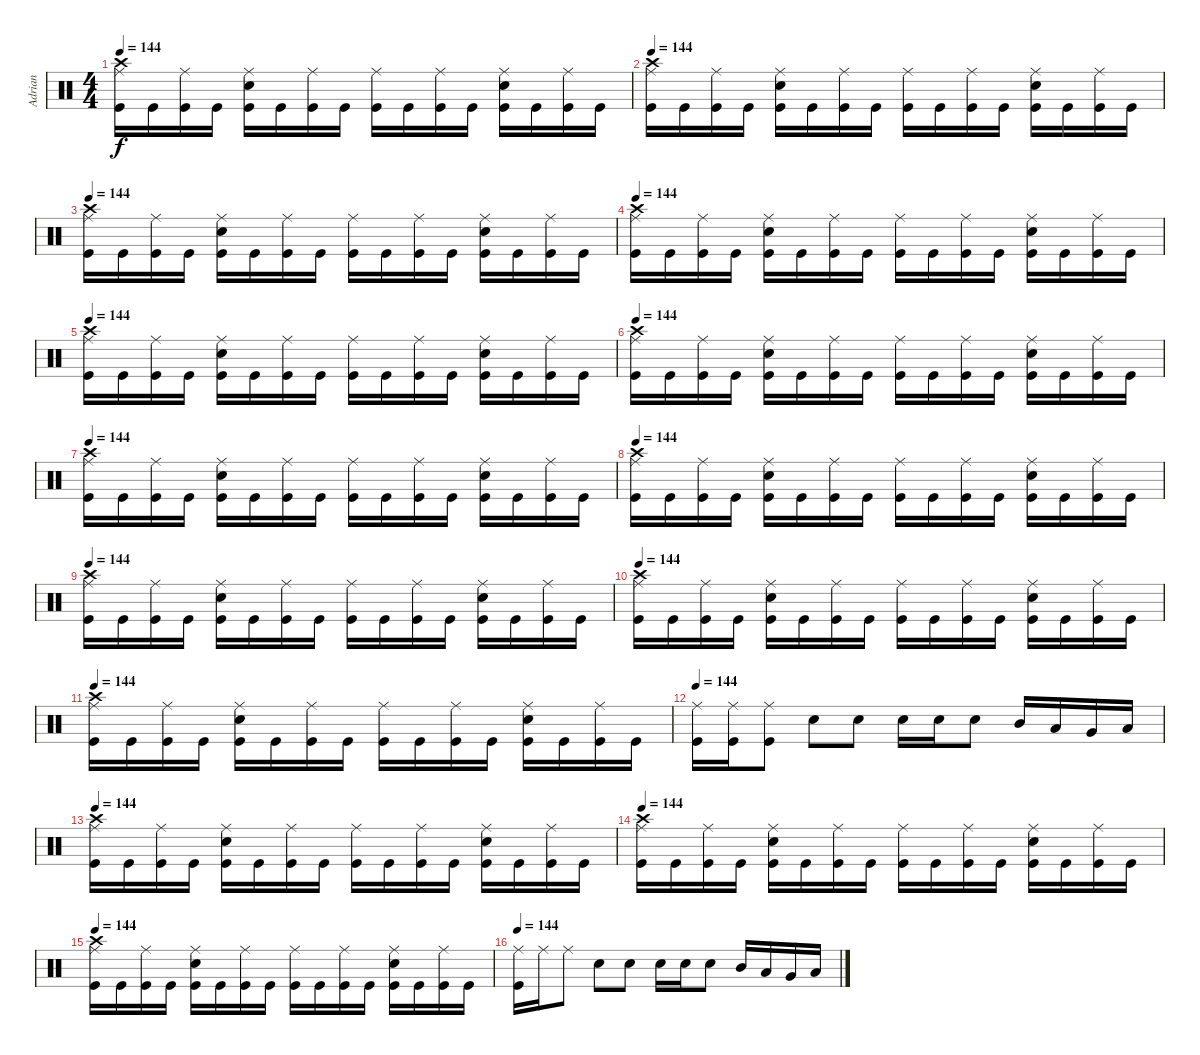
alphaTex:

\track ("Adrian" "Adrian") {instrument percussion}
\staff {score}
\articulation defaults
\ts (4 4)
\tempo 144
\clef neutral
\ks c
("Kick (hit)" "Ride (middle)" "Crash high (hit)").16{dy f} "Kick (hit)".16 ("Kick (hit)" "Ride (middle)").16 "Kick (hit)".16 ("Kick (hit)" "Snare (hit) 2" "Ride (middle)").16 "Kick (hit)".16 ("Kick (hit)" "Ride (middle)").16 "Kick (hit)".16 ("Kick (hit)" "Ride (middle)").16 "Kick (hit)".16 ("Kick (hit)" "Ride (middle)").16 "Kick (hit)".16 ("Kick (hit)" "Snare (hit) 2" "Ride (middle)").16 "Kick (hit)".16 ("Kick (hit)" "Ride (middle)").16 "Kick (hit)".16 |
\tempo 144
("Kick (hit)" "Ride (middle)" "Crash high (hit)").16 "Kick (hit)".16 ("Kick (hit)" "Ride (middle)").16 "Kick (hit)".16 ("Kick (hit)" "Snare (hit) 2" "Ride (middle)").16 "Kick (hit)".16 ("Kick (hit)" "Ride (middle)").16 "Kick (hit)".16 ("Kick (hit)" "Ride (middle)").16 "Kick (hit)".16 ("Kick (hit)" "Ride (middle)").16 "Kick (hit)".16 ("Kick (hit)" "Snare (hit) 2" "Ride (middle)").16 "Kick (hit)".16 ("Kick (hit)" "Ride (middle)").16 "Kick (hit)".16 |
\tempo 144
("Kick (hit)" "Ride (middle)" "Crash high (hit)").16 "Kick (hit)".16 ("Kick (hit)" "Ride (middle)").16 "Kick (hit)".16 ("Kick (hit)" "Snare (hit) 2" "Ride (middle)").16 "Kick (hit)".16 ("Kick (hit)" "Ride (middle)").16 "Kick (hit)".16 ("Kick (hit)" "Ride (middle)").16 "Kick (hit)".16 ("Kick (hit)" "Ride (middle)").16 "Kick (hit)".16 ("Kick (hit)" "Snare (hit) 2" "Ride (middle)").16 "Kick (hit)".16 ("Kick (hit)" "Ride (middle)").16 "Kick (hit)".16 |
\tempo 144
("Kick (hit)" "Ride (middle)" "Crash high (hit)").16 "Kick (hit)".16 ("Kick (hit)" "Ride (middle)").16 "Kick (hit)".16 ("Kick (hit)" "Snare (hit) 2" "Ride (middle)").16 "Kick (hit)".16 ("Kick (hit)" "Ride (middle)").16 "Kick (hit)".16 ("Kick (hit)" "Ride (middle)").16 "Kick (hit)".16 ("Kick (hit)" "Ride (middle)").16 "Kick (hit)".16 ("Kick (hit)" "Snare (hit) 2" "Ride (middle)").16 "Kick (hit)".16 ("Kick (hit)" "Ride (middle)").16 "Kick (hit)".16 |
\tempo 144
("Kick (hit)" "Ride (middle)" "Crash high (hit)").16 "Kick (hit)".16 ("Kick (hit)" "Ride (middle)").16 "Kick (hit)".16 ("Kick (hit)" "Snare (hit) 2" "Ride (middle)").16 "Kick (hit)".16 ("Kick (hit)" "Ride (middle)").16 "Kick (hit)".16 ("Kick (hit)" "Ride (middle)").16 "Kick (hit)".16 ("Kick (hit)" "Ride (middle)").16 "Kick (hit)".16 ("Kick (hit)" "Snare (hit) 2" "Ride (middle)").16 "Kick (hit)".16 ("Kick (hit)" "Ride (middle)").16 "Kick (hit)".16 |
\tempo 144
("Kick (hit)" "Ride (middle)" "Crash high (hit)").16 "Kick (hit)".16 ("Kick (hit)" "Ride (middle)").16 "Kick (hit)".16 ("Kick (hit)" "Snare (hit) 2" "Ride (middle)").16 "Kick (hit)".16 ("Kick (hit)" "Ride (middle)").16 "Kick (hit)".16 ("Kick (hit)" "Ride (middle)").16 "Kick (hit)".16 ("Kick (hit)" "Ride (middle)").16 "Kick (hit)".16 ("Kick (hit)" "Snare (hit) 2" "Ride (middle)").16 "Kick (hit)".16 ("Kick (hit)" "Ride (middle)").16 "Kick (hit)".16 |
\tempo 144
("Kick (hit)" "Ride (middle)" "Crash high (hit)").16 "Kick (hit)".16 ("Kick (hit)" "Ride (middle)").16 "Kick (hit)".16 ("Kick (hit)" "Snare (hit) 2" "Ride (middle)").16 "Kick (hit)".16 ("Kick (hit)" "Ride (middle)").16 "Kick (hit)".16 ("Kick (hit)" "Ride (middle)").16 "Kick (hit)".16 ("Kick (hit)" "Ride (middle)").16 "Kick (hit)".16 ("Kick (hit)" "Snare (hit) 2" "Ride (middle)").16 "Kick (hit)".16 ("Kick (hit)" "Ride (middle)").16 "Kick (hit)".16 |
\tempo 144
("Kick (hit)" "Ride (middle)" "Crash high (hit)").16 "Kick (hit)".16 ("Kick (hit)" "Ride (middle)").16 "Kick (hit)".16 ("Kick (hit)" "Snare (hit) 2" "Ride (middle)").16 "Kick (hit)".16 ("Kick (hit)" "Ride (middle)").16 "Kick (hit)".16 ("Kick (hit)" "Ride (middle)").16 "Kick (hit)".16 ("Kick (hit)" "Ride (middle)").16 "Kick (hit)".16 ("Kick (hit)" "Snare (hit) 2" "Ride (middle)").16 "Kick (hit)".16 ("Kick (hit)" "Ride (middle)").16 "Kick (hit)".16 |
\tempo 144
("Kick (hit)" "Ride (middle)" "Crash high (hit)").16 "Kick (hit)".16 ("Kick (hit)" "Ride (middle)").16 "Kick (hit)".16 ("Kick (hit)" "Snare (hit) 2" "Ride (middle)").16 "Kick (hit)".16 ("Kick (hit)" "Ride (middle)").16 "Kick (hit)".16 ("Kick (hit)" "Ride (middle)").16 "Kick (hit)".16 ("Kick (hit)" "Ride (middle)").16 "Kick (hit)".16 ("Kick (hit)" "Snare (hit) 2" "Ride (middle)").16 "Kick (hit)".16 ("Kick (hit)" "Ride (middle)").16 "Kick (hit)".16 |
\tempo 144
("Kick (hit)" "Ride (middle)" "Crash high (hit)").16 "Kick (hit)".16 ("Kick (hit)" "Ride (middle)").16 "Kick (hit)".16 ("Kick (hit)" "Snare (hit) 2" "Ride (middle)").16 "Kick (hit)".16 ("Kick (hit)" "Ride (middle)").16 "Kick (hit)".16 ("Kick (hit)" "Ride (middle)").16 "Kick (hit)".16 ("Kick (hit)" "Ride (middle)").16 "Kick (hit)".16 ("Kick (hit)" "Snare (hit) 2" "Ride (middle)").16 "Kick (hit)".16 ("Kick (hit)" "Ride (middle)").16 "Kick (hit)".16 |
\tempo 144
("Kick (hit)" "Ride (middle)" "Crash high (hit)").16 "Kick (hit)".16 ("Kick (hit)" "Ride (middle)").16 "Kick (hit)".16 ("Kick (hit)" "Snare (hit) 2" "Ride (middle)").16 "Kick (hit)".16 ("Kick (hit)" "Ride (middle)").16 "Kick (hit)".16 ("Kick (hit)" "Ride (middle)").16 "Kick (hit)".16 ("Kick (hit)" "Ride (middle)").16 "Kick (hit)".16 ("Kick (hit)" "Snare (hit) 2" "Ride (middle)").16 "Kick (hit)".16 ("Kick (hit)" "Ride (middle)").16 "Kick (hit)".16 |
\tempo 144
("Kick (hit)" "Ride (middle)").16 ("Kick (hit)" "Ride (middle)").16 ("Kick (hit)" "Ride (middle)").8 "Snare (hit) 2".8 "Snare (hit) 2".8 "Snare (hit) 2".16 "Snare (hit) 2".16 "Snare (hit) 2".8 "Mid Tom (hit)".16 "Low Tom (hit)".16 "Very Low Tom (hit)".16 "Low Floor Tom (hit)".16 |
\tempo 144
("Kick (hit)" "Ride (middle)" "Crash high (hit)").16 "Kick (hit)".16 ("Kick (hit)" "Ride (middle)").16 "Kick (hit)".16 ("Kick (hit)" "Snare (hit) 2" "Ride (middle)").16 "Kick (hit)".16 ("Kick (hit)" "Ride (middle)").16 "Kick (hit)".16 ("Kick (hit)" "Ride (middle)").16 "Kick (hit)".16 ("Kick (hit)" "Ride (middle)").16 "Kick (hit)".16 ("Kick (hit)" "Snare (hit) 2" "Ride (middle)").16 "Kick (hit)".16 ("Kick (hit)" "Ride (middle)").16 "Kick (hit)".16 |
\tempo 144
("Kick (hit)" "Ride (middle)" "Crash high (hit)").16 "Kick (hit)".16 ("Kick (hit)" "Ride (middle)").16 "Kick (hit)".16 ("Kick (hit)" "Snare (hit) 2" "Ride (middle)").16 "Kick (hit)".16 ("Kick (hit)" "Ride (middle)").16 "Kick (hit)".16 ("Kick (hit)" "Ride (middle)").16 "Kick (hit)".16 ("Kick (hit)" "Ride (middle)").16 "Kick (hit)".16 ("Kick (hit)" "Snare (hit) 2" "Ride (middle)").16 "Kick (hit)".16 ("Kick (hit)" "Ride (middle)").16 "Kick (hit)".16 |
\tempo 144
("Kick (hit)" "Ride (middle)" "Crash high (hit)").16 "Kick (hit)".16 ("Kick (hit)" "Ride (middle)").16 "Kick (hit)".16 ("Kick (hit)" "Snare (hit) 2" "Ride (middle)").16 "Kick (hit)".16 ("Kick (hit)" "Ride (middle)").16 "Kick (hit)".16 ("Kick (hit)" "Ride (middle)").16 "Kick (hit)".16 ("Kick (hit)" "Ride (middle)").16 "Kick (hit)".16 ("Kick (hit)" "Snare (hit) 2" "Ride (middle)").16 "Kick (hit)".16 ("Kick (hit)" "Ride (middle)").16 "Kick (hit)".16 |
\tempo 144
("Kick (hit)" "Ride (middle)").16 "Ride (middle)".16 "Ride (middle)".8 "Snare (hit) 2".8 "Snare (hit) 2".8 "Snare (hit) 2".16 "Snare (hit) 2".16 "Snare (hit) 2".8 "Mid Tom (hit)".16 "Low Tom (hit)".16 "Very Low Tom (hit)".16 "Low Floor Tom (hit)".16
